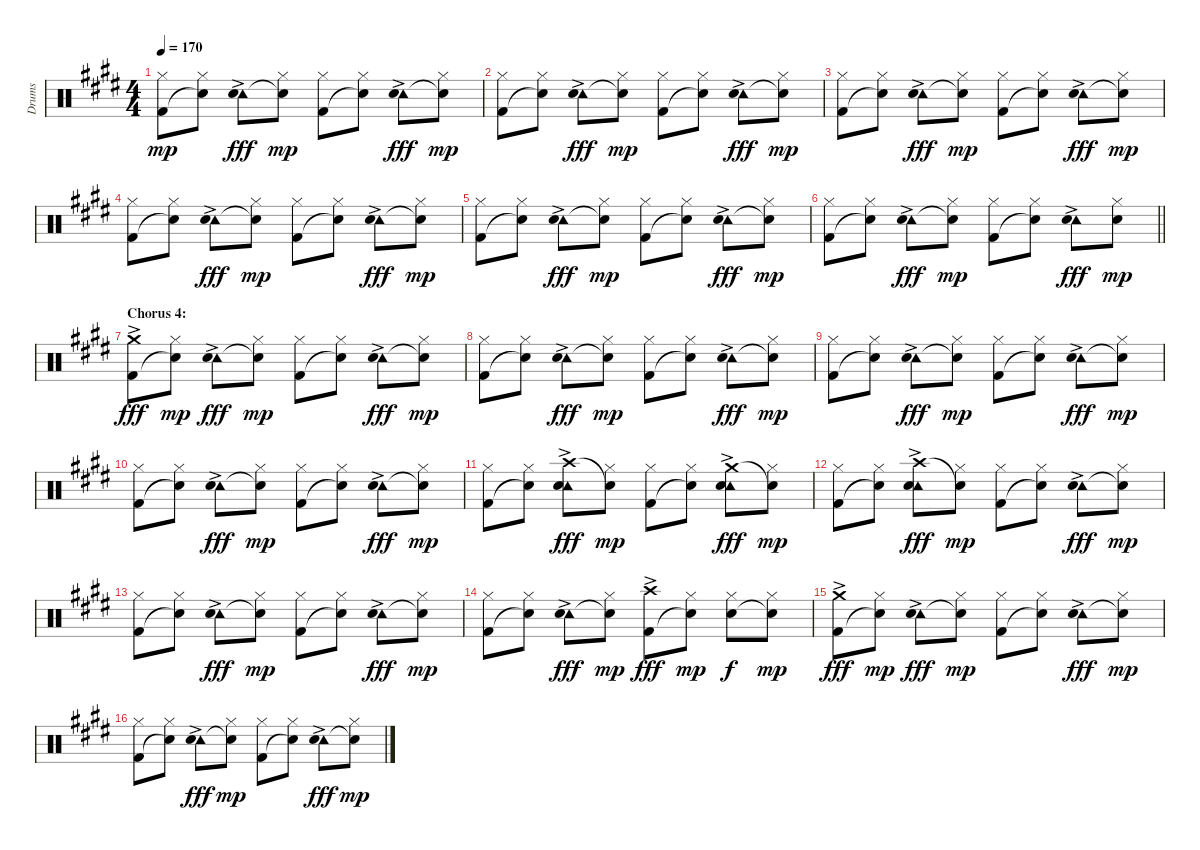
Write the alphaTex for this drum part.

\track ("Drums" "Drums") {instrument percussion}
\staff {score}
\articulation defaults
\ts (4 4)
\tempo 170
\clef neutral
\ks c#minor
("Hi-Hat (closed)" "Kick (hit) 2").8{dy mp} ("Hi-Hat (closed)" "Snare (hit)"{t}).8 ("Tambourine (hit)"{ac} "Hand Clap (hit)").8{dy fff} ("Hi-Hat (closed)" "Snare (hit)"{t}).8{dy mp} ("Hi-Hat (closed)" "Kick (hit) 2").8 ("Hi-Hat (closed)" "Snare (hit)"{t}).8 ("Tambourine (hit)"{ac} "Hand Clap (hit)").8{dy fff} ("Hi-Hat (closed)" "Snare (hit)"{t}).8{dy mp} |
("Hi-Hat (closed)" "Kick (hit) 2").8 ("Hi-Hat (closed)" "Snare (hit)"{t}).8 ("Tambourine (hit)"{ac} "Hand Clap (hit)").8{dy fff} ("Hi-Hat (closed)" "Snare (hit)"{t}).8{dy mp} ("Hi-Hat (closed)" "Kick (hit) 2").8 ("Hi-Hat (closed)" "Snare (hit)"{t}).8 ("Tambourine (hit)"{ac} "Hand Clap (hit)").8{dy fff} ("Hi-Hat (closed)" "Snare (hit)"{t}).8{dy mp} |
("Hi-Hat (closed)" "Kick (hit) 2").8 ("Hi-Hat (closed)" "Snare (hit)"{t}).8 ("Tambourine (hit)"{ac} "Hand Clap (hit)").8{dy fff} ("Hi-Hat (closed)" "Snare (hit)"{t}).8{dy mp} ("Hi-Hat (closed)" "Kick (hit) 2").8 ("Hi-Hat (closed)" "Snare (hit)"{t}).8 ("Tambourine (hit)"{ac} "Hand Clap (hit)").8{dy fff} ("Hi-Hat (closed)" "Snare (hit)"{t}).8{dy mp} |
("Hi-Hat (closed)" "Kick (hit) 2").8 ("Hi-Hat (closed)" "Snare (hit)"{t}).8 ("Tambourine (hit)"{ac} "Hand Clap (hit)").8{dy fff} ("Hi-Hat (closed)" "Snare (hit)"{t}).8{dy mp} ("Hi-Hat (closed)" "Kick (hit) 2").8 ("Hi-Hat (closed)" "Snare (hit)"{t}).8 ("Tambourine (hit)"{ac} "Hand Clap (hit)").8{dy fff} ("Hi-Hat (closed)" "Snare (hit)"{t}).8{dy mp} |
("Hi-Hat (closed)" "Kick (hit) 2").8 ("Hi-Hat (closed)" "Snare (hit)"{t}).8 ("Tambourine (hit)"{ac} "Hand Clap (hit)").8{dy fff} ("Hi-Hat (closed)" "Snare (hit)"{t}).8{dy mp} ("Hi-Hat (closed)" "Kick (hit) 2").8 ("Hi-Hat (closed)" "Snare (hit)"{t}).8 ("Tambourine (hit)"{ac} "Hand Clap (hit)").8{dy fff} ("Hi-Hat (closed)" "Snare (hit)"{t}).8{dy mp} |
\barLineRight lightlight
("Hi-Hat (closed)" "Kick (hit) 2").8 ("Hi-Hat (closed)" "Snare (hit)"{t}).8 ("Tambourine (hit)"{ac} "Hand Clap (hit)").8{dy fff} ("Hi-Hat (closed)" "Snare (hit)"{t}).8{dy mp} ("Hi-Hat (closed)" "Kick (hit) 2").8 ("Hi-Hat (closed)" "Snare (hit)"{t}).8 ("Tambourine (hit)"{ac} "Snare (hit) 2").8{dy fff} ("Hi-Hat (closed)" "Snare (hit) 2").8{dy mp} |
\section ("" "Chorus 4:")
("Crash medium (hit)"{ac} "Kick (hit) 2").8{dy fff} ("Hi-Hat (closed)" "Snare (hit)"{t}).8{dy mp} ("Tambourine (hit)"{ac} "Hand Clap (hit)").8{dy fff} ("Hi-Hat (closed)" "Snare (hit)"{t}).8{dy mp} ("Hi-Hat (closed)" "Kick (hit) 2").8 ("Hi-Hat (closed)" "Snare (hit)"{t}).8 ("Tambourine (hit)"{ac} "Hand Clap (hit)").8{dy fff} ("Hi-Hat (closed)" "Snare (hit)"{t}).8{dy mp} |
("Hi-Hat (closed)" "Kick (hit) 2").8 ("Hi-Hat (closed)" "Snare (hit)"{t}).8 ("Tambourine (hit)"{ac} "Hand Clap (hit)").8{dy fff} ("Hi-Hat (closed)" "Snare (hit)"{t}).8{dy mp} ("Hi-Hat (closed)" "Kick (hit) 2").8 ("Hi-Hat (closed)" "Snare (hit)"{t}).8 ("Tambourine (hit)"{ac} "Hand Clap (hit)").8{dy fff} ("Hi-Hat (closed)" "Snare (hit)"{t}).8{dy mp} |
("Hi-Hat (closed)" "Kick (hit) 2").8 ("Hi-Hat (closed)" "Snare (hit)"{t}).8 ("Tambourine (hit)"{ac} "Hand Clap (hit)").8{dy fff} ("Hi-Hat (closed)" "Snare (hit)"{t}).8{dy mp} ("Hi-Hat (closed)" "Kick (hit) 2").8 ("Hi-Hat (closed)" "Snare (hit)"{t}).8 ("Tambourine (hit)"{ac} "Hand Clap (hit)").8{dy fff} ("Hi-Hat (closed)" "Snare (hit)"{t}).8{dy mp} |
("Hi-Hat (closed)" "Kick (hit) 2").8 ("Hi-Hat (closed)" "Snare (hit)"{t}).8 ("Tambourine (hit)"{ac} "Hand Clap (hit)").8{dy fff} ("Hi-Hat (closed)" "Snare (hit)"{t}).8{dy mp} ("Hi-Hat (closed)" "Kick (hit) 2").8 ("Hi-Hat (closed)" "Snare (hit)"{t}).8 ("Tambourine (hit)"{ac} "Hand Clap (hit)").8{dy fff} ("Hi-Hat (closed)" "Snare (hit)"{t}).8{dy mp} |
("Hi-Hat (closed)" "Kick (hit) 2").8 ("Hi-Hat (closed)" "Snare (hit)"{t}).8 ("Tambourine (hit)"{ac} "Crash high (hit)"{ac} "Hand Clap (hit)").8{dy fff} ("Hi-Hat (closed)" "Snare (hit)"{t}).8{dy mp} ("Hi-Hat (closed)" "Kick (hit) 2").8 ("Hi-Hat (closed)" "Snare (hit)"{t}).8 ("Tambourine (hit)"{ac} "Crash medium (hit)"{ac} "Hand Clap (hit)").8{dy fff} ("Hi-Hat (closed)" "Snare (hit)"{t}).8{dy mp} |
("Hi-Hat (closed)" "Kick (hit) 2").8 ("Hi-Hat (closed)" "Snare (hit)"{t}).8 ("Tambourine (hit)"{ac} "Crash high (hit)"{ac} "Hand Clap (hit)").8{dy fff} ("Hi-Hat (closed)" "Snare (hit)"{t}).8{dy mp} ("Hi-Hat (closed)" "Kick (hit) 2").8 ("Hi-Hat (closed)" "Snare (hit)"{t}).8 ("Tambourine (hit)"{ac} "Hand Clap (hit)").8{dy fff} ("Hi-Hat (closed)" "Snare (hit)"{t}).8{dy mp} |
("Hi-Hat (closed)" "Kick (hit) 2").8 ("Hi-Hat (closed)" "Snare (hit)"{t}).8 ("Tambourine (hit)"{ac} "Hand Clap (hit)").8{dy fff} ("Hi-Hat (closed)" "Snare (hit)"{t}).8{dy mp} ("Hi-Hat (closed)" "Kick (hit) 2").8 ("Hi-Hat (closed)" "Snare (hit)"{t}).8 ("Tambourine (hit)"{ac} "Hand Clap (hit)").8{dy fff} ("Hi-Hat (closed)" "Snare (hit)"{t}).8{dy mp} |
("Hi-Hat (closed)" "Kick (hit) 2").8 ("Hi-Hat (closed)" "Snare (hit)"{t}).8 ("Tambourine (hit)"{ac} "Hand Clap (hit)").8{dy fff} ("Hi-Hat (closed)" "Snare (hit)"{t}).8{dy mp} ("Crash high (hit)"{ac} "Kick (hit) 2").8{dy fff} ("Hi-Hat (closed)" "Snare (hit)"{t}).8{dy mp} ("Hi-Hat (closed)" "Hand Clap (hit)").8{dy f} ("Hi-Hat (closed)" "Snare (hit)"{t}).8{dy mp} |
("Crash medium (hit)"{ac} "Kick (hit) 2").8{dy fff} ("Hi-Hat (closed)" "Snare (hit)"{t}).8{dy mp} ("Tambourine (hit)"{ac} "Hand Clap (hit)").8{dy fff} ("Hi-Hat (closed)" "Snare (hit)"{t}).8{dy mp} ("Hi-Hat (closed)" "Kick (hit) 2").8 ("Hi-Hat (closed)" "Snare (hit)"{t}).8 ("Tambourine (hit)"{ac} "Hand Clap (hit)").8{dy fff} ("Hi-Hat (closed)" "Snare (hit)"{t}).8{dy mp} |
("Hi-Hat (closed)" "Kick (hit) 2").8 ("Hi-Hat (closed)" "Snare (hit)"{t}).8 ("Tambourine (hit)"{ac} "Hand Clap (hit)").8{dy fff} ("Hi-Hat (closed)" "Snare (hit)"{t}).8{dy mp} ("Hi-Hat (closed)" "Kick (hit) 2").8 ("Hi-Hat (closed)" "Snare (hit)"{t}).8 ("Tambourine (hit)"{ac} "Hand Clap (hit)").8{dy fff} ("Hi-Hat (closed)" "Snare (hit)"{t}).8{dy mp}
